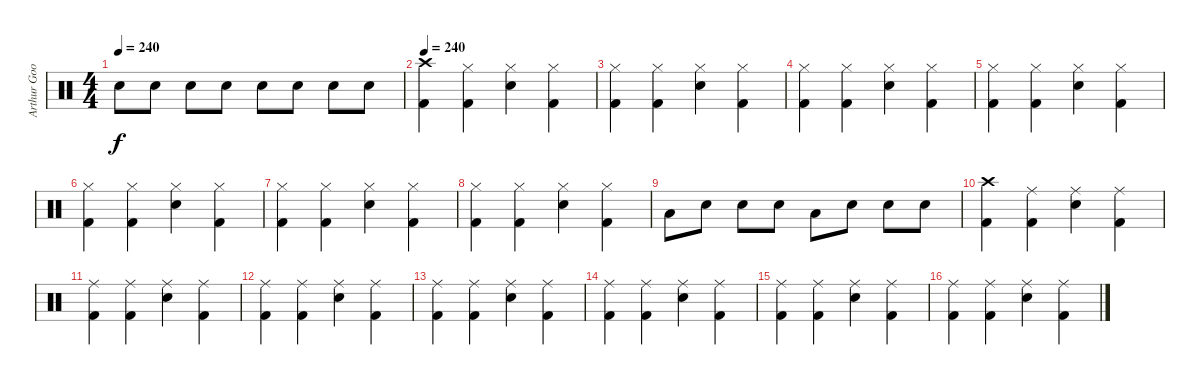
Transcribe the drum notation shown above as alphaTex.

\track ("Arthur Googy" "Arthur Goo") {instrument percussion}
\staff {score}
\articulation defaults
\ts (4 4)
\tempo 240
\clef neutral
\ks c "Electric Snare (hit)".8{dy f} "Electric Snare (hit)".8 "Electric Snare (hit)".8 "Electric Snare (hit)".8 "Electric Snare (hit)".8 "Electric Snare (hit)".8 "Electric Snare (hit)".8 "Electric Snare (hit)".8
|
\tempo 240
("Crash high (hit)" "Kick (hit) 2").4 ("Hi-Hat (closed)" "Kick (hit) 2").4 ("Hi-Hat (closed)" "Electric Snare (hit)").4 ("Hi-Hat (closed)" "Kick (hit) 2").4 |
("Hi-Hat (closed)" "Kick (hit) 2").4 ("Hi-Hat (closed)" "Kick (hit) 2").4 ("Hi-Hat (closed)" "Electric Snare (hit)").4 ("Hi-Hat (closed)" "Kick (hit) 2").4 |
("Hi-Hat (closed)" "Kick (hit) 2").4 ("Hi-Hat (closed)" "Kick (hit) 2").4 ("Hi-Hat (closed)" "Electric Snare (hit)").4 ("Hi-Hat (closed)" "Kick (hit) 2").4 |
("Hi-Hat (closed)" "Kick (hit) 2").4 ("Hi-Hat (closed)" "Kick (hit) 2").4 ("Hi-Hat (closed)" "Electric Snare (hit)").4 ("Hi-Hat (closed)" "Kick (hit) 2").4 |
("Hi-Hat (closed)" "Kick (hit) 2").4 ("Hi-Hat (closed)" "Kick (hit) 2").4 ("Hi-Hat (closed)" "Electric Snare (hit)").4 ("Hi-Hat (closed)" "Kick (hit) 2").4 |
("Hi-Hat (closed)" "Kick (hit) 2").4 ("Hi-Hat (closed)" "Kick (hit) 2").4 ("Hi-Hat (closed)" "Electric Snare (hit)").4 ("Hi-Hat (closed)" "Kick (hit) 2").4 |
("Hi-Hat (closed)" "Kick (hit) 2").4 ("Hi-Hat (closed)" "Kick (hit) 2").4 ("Hi-Hat (closed)" "Electric Snare (hit)").4 ("Hi-Hat (closed)" "Kick (hit) 2").4 |
"Low Tom (hit)".8 "Electric Snare (hit)".8 "Electric Snare (hit)".8 "Electric Snare (hit)".8 "Low Tom (hit)".8 "Electric Snare (hit)".8 "Electric Snare (hit)".8 "Electric Snare (hit)".8 |
("Crash high (hit)" "Kick (hit) 2").4 ("Ride (middle)" "Kick (hit) 2").4 ("Ride (middle)" "Electric Snare (hit)").4 ("Ride (middle)" "Kick (hit) 2").4 |
("Ride (middle)" "Kick (hit) 2").4 ("Ride (middle)" "Kick (hit) 2").4 ("Ride (middle)" "Electric Snare (hit)").4 ("Ride (middle)" "Kick (hit) 2").4 |
("Ride (middle)" "Kick (hit) 2").4 ("Ride (middle)" "Kick (hit) 2").4 ("Ride (middle)" "Electric Snare (hit)").4 ("Ride (middle)" "Kick (hit) 2").4 |
("Ride (middle)" "Kick (hit) 2").4 ("Ride (middle)" "Kick (hit) 2").4 ("Ride (middle)" "Electric Snare (hit)").4 ("Ride (middle)" "Kick (hit) 2").4 |
("Ride (middle)" "Kick (hit) 2").4 ("Ride (middle)" "Kick (hit) 2").4 ("Ride (middle)" "Electric Snare (hit)").4 ("Ride (middle)" "Kick (hit) 2").4 |
("Ride (middle)" "Kick (hit) 2").4 ("Ride (middle)" "Kick (hit) 2").4 ("Ride (middle)" "Electric Snare (hit)").4 ("Ride (middle)" "Kick (hit) 2").4 |
("Ride (middle)" "Kick (hit) 2").4 ("Ride (middle)" "Kick (hit) 2").4 ("Ride (middle)" "Electric Snare (hit)").4 ("Ride (middle)" "Kick (hit) 2").4
